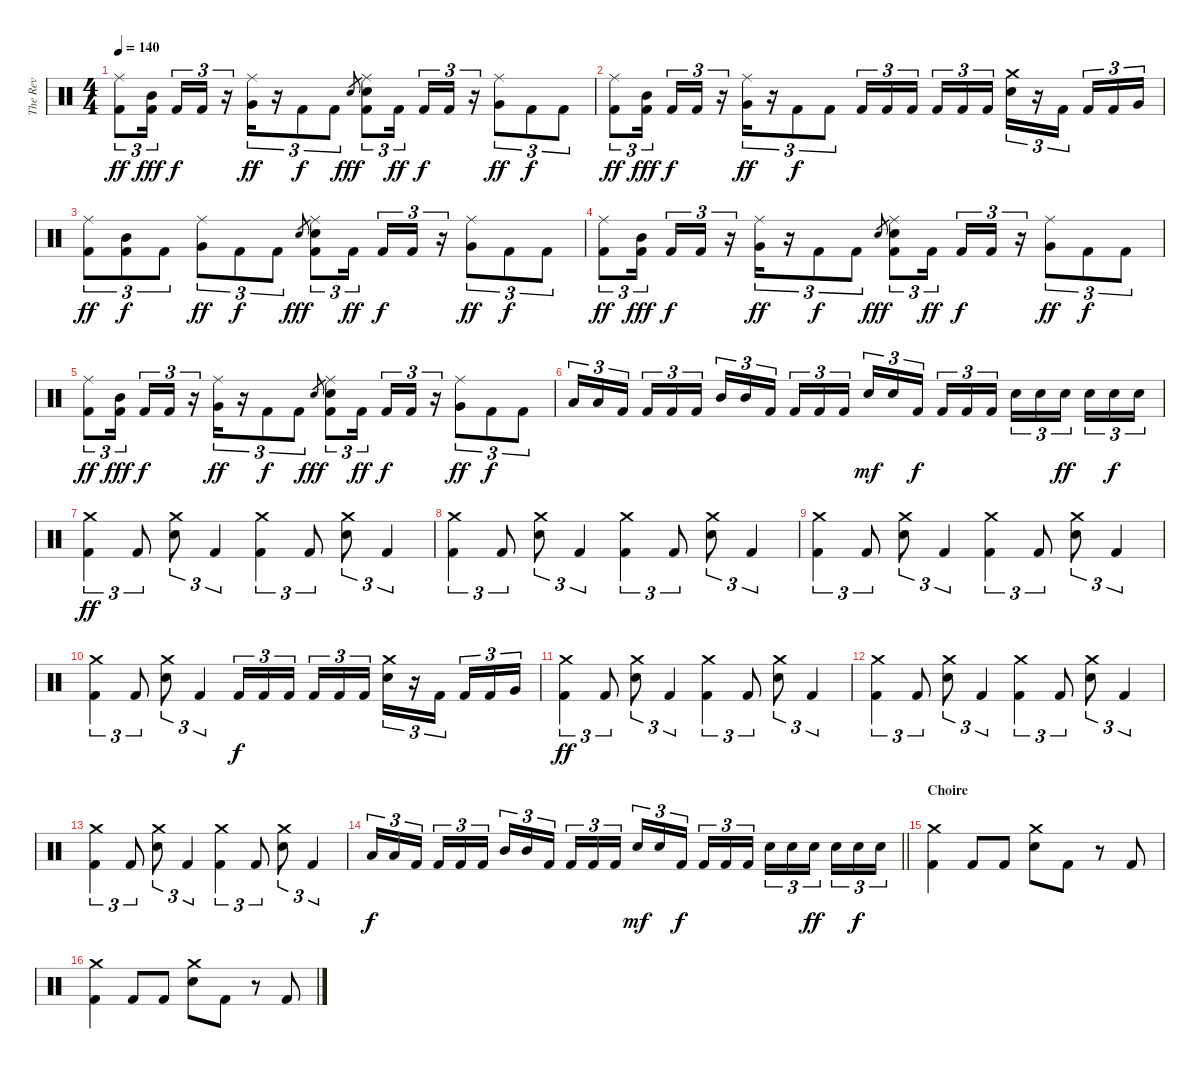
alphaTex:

\track ("The Rev" "The Rev") {instrument percussion}
\staff {score}
\articulation defaults
\ts (4 4)
\tempo 140
\clef neutral
\ks c
("Ride (middle)" "Kick (hit) 2").8{tu (3 2) dy ff} ("Mid Tom (hit)" "Kick (hit) 2").16{tu (3 2) dy fff beam splitsecondary} "Kick (hit) 2".16{tu (3 2) dy f} "Kick (hit) 2".16{tu (3 2)} r.16{tu (3 2)} ("Ride (middle)" "Very Low Tom (hit)").16{tu (3 2) dy ff} r.16{tu (3 2)} "Kick (hit) 2".8{tu (3 2) dy f} "Kick (hit) 2".8{tu (3 2)} "Snare (hit) 2".8{gr dy fff} ("Ride (middle)" "Snare (hit) 2" "Kick (hit) 2").8{tu (3 2)} "Kick (hit) 2".16{tu (3 2) dy ff beam splitsecondary} "Kick (hit) 2".16{tu (3 2) dy f} "Kick (hit) 2".16{tu (3 2)} r.16{tu (3 2)} ("Ride (middle)" "Very Low Tom (hit)").8{tu (3 2) dy ff} "Kick (hit) 2".8{tu (3 2) dy f} "Kick (hit) 2".8{tu (3 2)} |
("Ride (middle)" "Kick (hit) 2").8{tu (3 2) dy ff} ("Mid Tom (hit)" "Kick (hit) 2").16{tu (3 2) dy fff beam splitsecondary} "Kick (hit) 2".16{tu (3 2) dy f} "Kick (hit) 2".16{tu (3 2)} r.16{tu (3 2)} ("Ride (middle)" "Very Low Tom (hit)").16{tu (3 2) dy ff} r.16{tu (3 2)} "Kick (hit) 2".8{tu (3 2) dy f} "Kick (hit) 2".8{tu (3 2)} "Kick (hit) 2".16{tu (3 2)} "Kick (hit) 2".16{tu (3 2)} "Kick (hit) 2".16{tu (3 2) beam splitsecondary} "Kick (hit) 2".16{tu (3 2)} "Kick (hit) 2".16{tu (3 2)} "Kick (hit) 2".16{tu (3 2)} ("Crash medium (hit)" "Snare (hit) 2").16{tu (3 2)} r.16{tu (3 2)} "Kick (hit) 2".16{tu (3 2) beam splitsecondary} "Kick (hit) 2".16{tu (3 2)} "Kick (hit) 2".16{tu (3 2)} "Very Low Tom (hit)".16{tu (3 2)} |
("Ride (middle)" "Kick (hit) 2").8{tu (3 2) dy ff} ("Mid Tom (hit)" "Kick (hit) 2").8{tu (3 2) dy f} "Kick (hit) 2".8{tu (3 2)} ("Ride (middle)" "Very Low Tom (hit)").8{tu (3 2) dy ff} "Kick (hit) 2".8{tu (3 2) dy f} "Kick (hit) 2".8{tu (3 2)} "Snare (hit) 2".8{gr dy fff} ("Ride (middle)" "Snare (hit) 2" "Kick (hit) 2").8{tu (3 2)} "Kick (hit) 2".16{tu (3 2) dy ff beam splitsecondary} "Kick (hit) 2".16{tu (3 2) dy f} "Kick (hit) 2".16{tu (3 2)} r.16{tu (3 2)} ("Ride (middle)" "Very Low Tom (hit)").8{tu (3 2) dy ff} "Kick (hit) 2".8{tu (3 2) dy f} "Kick (hit) 2".8{tu (3 2)} |
("Ride (middle)" "Kick (hit) 2").8{tu (3 2) dy ff} ("Mid Tom (hit)" "Kick (hit) 2").16{tu (3 2) dy fff beam splitsecondary} "Kick (hit) 2".16{tu (3 2) dy f} "Kick (hit) 2".16{tu (3 2)} r.16{tu (3 2)} ("Ride (middle)" "Very Low Tom (hit)").16{tu (3 2) dy ff} r.16{tu (3 2)} "Kick (hit) 2".8{tu (3 2) dy f} "Kick (hit) 2".8{tu (3 2)} "Snare (hit) 2".8{gr dy fff} ("Ride (middle)" "Snare (hit) 2" "Kick (hit) 2").8{tu (3 2)} "Kick (hit) 2".16{tu (3 2) dy ff beam splitsecondary} "Kick (hit) 2".16{tu (3 2) dy f} "Kick (hit) 2".16{tu (3 2)} r.16{tu (3 2)} ("Ride (middle)" "Very Low Tom (hit)").8{tu (3 2) dy ff} "Kick (hit) 2".8{tu (3 2) dy f} "Kick (hit) 2".8{tu (3 2)} |
("Ride (middle)" "Kick (hit) 2").8{tu (3 2) dy ff} ("Mid Tom (hit)" "Kick (hit) 2").16{tu (3 2) dy fff beam splitsecondary} "Kick (hit) 2".16{tu (3 2) dy f} "Kick (hit) 2".16{tu (3 2)} r.16{tu (3 2)} ("Ride (middle)" "Very Low Tom (hit)").16{tu (3 2) dy ff} r.16{tu (3 2)} "Kick (hit) 2".8{tu (3 2) dy f} "Kick (hit) 2".8{tu (3 2)} "Snare (hit) 2".8{gr dy fff} ("Ride (middle)" "Snare (hit) 2" "Kick (hit) 2").8{tu (3 2)} "Kick (hit) 2".16{tu (3 2) dy ff beam splitsecondary} "Kick (hit) 2".16{tu (3 2) dy f} "Kick (hit) 2".16{tu (3 2)} r.16{tu (3 2)} ("Ride (middle)" "Very Low Tom (hit)").8{tu (3 2) dy ff} "Kick (hit) 2".8{tu (3 2) dy f} "Kick (hit) 2".8{tu (3 2)} |
"Low Tom (hit)".16{tu (3 2)} "Low Tom (hit)".16{tu (3 2)} "Kick (hit) 2".16{tu (3 2) beam splitsecondary} "Kick (hit) 2".16{tu (3 2)} "Kick (hit) 2".16{tu (3 2)} "Kick (hit) 2".16{tu (3 2)} "Mid Tom (hit)".16{tu (3 2)} "Mid Tom (hit)".16{tu (3 2)} "Kick (hit) 2".16{tu (3 2) beam splitsecondary} "Kick (hit) 2".16{tu (3 2)} "Kick (hit) 2".16{tu (3 2)} "Kick (hit) 2".16{tu (3 2)} "Snare (hit) 2".16{tu (3 2) dy mf} "Snare (hit) 2".16{tu (3 2)} "Kick (hit) 2".16{tu (3 2) dy f beam splitsecondary} "Kick (hit) 2".16{tu (3 2)} "Kick (hit) 2".16{tu (3 2)} "Kick (hit) 2".16{tu (3 2)} "Snare (hit) 2".16{tu (3 2)} "Snare (hit) 2".16{tu (3 2)} "Snare (hit) 2".16{tu (3 2) dy ff beam splitsecondary} "Snare (hit) 2".16{tu (3 2)} "Snare (hit) 2".16{tu (3 2) dy f} "Snare (hit) 2".16{tu (3 2)} |
("Crash medium (hit)" "Kick (hit) 2").4{tu (3 2) dy ff} "Kick (hit) 2".8{tu (3 2)} ("Crash medium (hit)" "Snare (hit) 2").8{tu (3 2)} "Kick (hit) 2".4{tu (3 2)} ("Crash medium (hit)" "Kick (hit) 2").4{tu (3 2)} "Kick (hit) 2".8{tu (3 2)} ("Crash medium (hit)" "Snare (hit) 2").8{tu (3 2)} "Kick (hit) 2".4{tu (3 2)} |
("Crash medium (hit)" "Kick (hit) 2").4{tu (3 2)} "Kick (hit) 2".8{tu (3 2)} ("Crash medium (hit)" "Snare (hit) 2").8{tu (3 2)} "Kick (hit) 2".4{tu (3 2)} ("Crash medium (hit)" "Kick (hit) 2").4{tu (3 2)} "Kick (hit) 2".8{tu (3 2)} ("Crash medium (hit)" "Snare (hit) 2").8{tu (3 2)} "Kick (hit) 2".4{tu (3 2)} |
("Crash medium (hit)" "Kick (hit) 2").4{tu (3 2)} "Kick (hit) 2".8{tu (3 2)} ("Crash medium (hit)" "Snare (hit) 2").8{tu (3 2)} "Kick (hit) 2".4{tu (3 2)} ("Crash medium (hit)" "Kick (hit) 2").4{tu (3 2)} "Kick (hit) 2".8{tu (3 2)} ("Crash medium (hit)" "Snare (hit) 2").8{tu (3 2)} "Kick (hit) 2".4{tu (3 2)} |
("Crash medium (hit)" "Kick (hit) 2").4{tu (3 2)} "Kick (hit) 2".8{tu (3 2)} ("Crash medium (hit)" "Snare (hit) 2").8{tu (3 2)} "Kick (hit) 2".4{tu (3 2)} "Kick (hit) 2".16{tu (3 2) dy f} "Kick (hit) 2".16{tu (3 2)} "Kick (hit) 2".16{tu (3 2) beam splitsecondary} "Kick (hit) 2".16{tu (3 2)} "Kick (hit) 2".16{tu (3 2)} "Kick (hit) 2".16{tu (3 2)} ("Crash medium (hit)" "Snare (hit) 2").16{tu (3 2)} r.16{tu (3 2)} "Kick (hit) 2".16{tu (3 2) beam splitsecondary} "Kick (hit) 2".16{tu (3 2)} "Kick (hit) 2".16{tu (3 2)} "Very Low Tom (hit)".16{tu (3 2)} |
("Crash medium (hit)" "Kick (hit) 2").4{tu (3 2) dy ff} "Kick (hit) 2".8{tu (3 2)} ("Crash medium (hit)" "Snare (hit) 2").8{tu (3 2)} "Kick (hit) 2".4{tu (3 2)} ("Crash medium (hit)" "Kick (hit) 2").4{tu (3 2)} "Kick (hit) 2".8{tu (3 2)} ("Crash medium (hit)" "Snare (hit) 2").8{tu (3 2)} "Kick (hit) 2".4{tu (3 2)} |
("Crash medium (hit)" "Kick (hit) 2").4{tu (3 2)} "Kick (hit) 2".8{tu (3 2)} ("Crash medium (hit)" "Snare (hit) 2").8{tu (3 2)} "Kick (hit) 2".4{tu (3 2)} ("Crash medium (hit)" "Kick (hit) 2").4{tu (3 2)} "Kick (hit) 2".8{tu (3 2)} ("Crash medium (hit)" "Snare (hit) 2").8{tu (3 2)} "Kick (hit) 2".4{tu (3 2)} |
("Crash medium (hit)" "Kick (hit) 2").4{tu (3 2)} "Kick (hit) 2".8{tu (3 2)} ("Crash medium (hit)" "Snare (hit) 2").8{tu (3 2)} "Kick (hit) 2".4{tu (3 2)} ("Crash medium (hit)" "Kick (hit) 2").4{tu (3 2)} "Kick (hit) 2".8{tu (3 2)} ("Crash medium (hit)" "Snare (hit) 2").8{tu (3 2)} "Kick (hit) 2".4{tu (3 2)} |
\barLineRight lightlight "Low Tom (hit)".16{tu (3 2) dy f} "Low Tom (hit)".16{tu (3 2)} "Kick (hit) 2".16{tu (3 2) beam splitsecondary} "Kick (hit) 2".16{tu (3 2)} "Kick (hit) 2".16{tu (3 2)} "Kick (hit) 2".16{tu (3 2)} "Mid Tom (hit)".16{tu (3 2)} "Mid Tom (hit)".16{tu (3 2)} "Kick (hit) 2".16{tu (3 2) beam splitsecondary} "Kick (hit) 2".16{tu (3 2)} "Kick (hit) 2".16{tu (3 2)} "Kick (hit) 2".16{tu (3 2)} "Snare (hit) 2".16{tu (3 2) dy mf} "Snare (hit) 2".16{tu (3 2)} "Kick (hit) 2".16{tu (3 2) dy f beam splitsecondary} "Kick (hit) 2".16{tu (3 2)} "Kick (hit) 2".16{tu (3 2)} "Kick (hit) 2".16{tu (3 2)} "Snare (hit) 2".16{tu (3 2)} "Snare (hit) 2".16{tu (3 2)} "Snare (hit) 2".16{tu (3 2) dy ff beam splitsecondary} "Snare (hit) 2".16{tu (3 2)} "Snare (hit) 2".16{tu (3 2) dy f} "Snare (hit) 2".16{tu (3 2)}
|
\section ("" "Choire")
("Crash medium (hit)" "Kick (hit) 2").4 "Kick (hit) 2".8 "Kick (hit) 2".8 ("Crash medium (hit)" "Snare (hit) 2").8 "Kick (hit) 2".8 r.8 "Kick (hit) 2".8 |
("Crash medium (hit)" "Kick (hit) 2").4 "Kick (hit) 2".8 "Kick (hit) 2".8 ("Crash medium (hit)" "Snare (hit) 2").8 "Kick (hit) 2".8 r.8 "Kick (hit) 2".8
